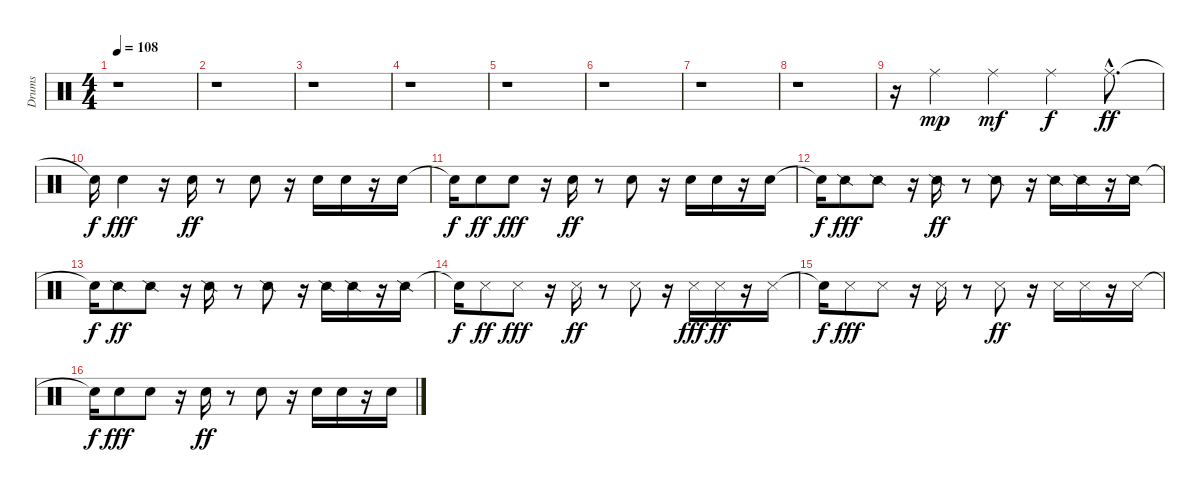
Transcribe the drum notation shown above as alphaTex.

\track ("Drums" "Drums") {instrument percussion}
\staff {score}
\articulation defaults
\ts (4 4)
\tempo 108
\clef neutral
\ks c
r.1{dy ff} |
r.1 |
r.1 |
r.1 |
r.1 |
r.1 |
r.1 |
r.1 |
r.16 "Ride (middle)".4{dy mp} "Ride (middle)".4{dy mf} "Ride (middle)".4{dy f} "Ride (middle)"{hac}.8{d dy ff} |
"Snare (hit)"{t}.16{dy f} "Metronome (bell)".4{dy fff} r.16 "Metronome (bell)".16{dy ff} r.8 "Metronome (bell)".8 r.16 "Metronome (bell)".16 "Metronome (bell)".16 r.16 "Metronome (bell)".16 |
"Snare (hit)"{t}.16{dy f} "Metronome (bell)".8{dy ff} "Metronome (bell)".8{dy fff} r.16 "Metronome (bell)".16{dy ff} r.8 "Metronome (bell)".8 r.16 "Metronome (bell)".16 "Metronome (bell)".16 r.16 "Metronome (bell)".16 |
"Snare (hit)"{t}.16{dy f} "Snare (side stick) 2".8{dy fff} "Snare (side stick) 2".8 r.16 "Snare (side stick) 2".16{dy ff} r.8 "Snare (side stick) 2".8 r.16 "Snare (side stick) 2".16 "Snare (side stick) 2".16 r.16 "Snare (side stick) 2".16 |
"Snare (hit)"{t}.16{dy f} "Snare (side stick) 2".8{dy ff} "Snare (side stick) 2".8 r.16 "Snare (side stick) 2".16 r.8 "Snare (side stick) 2".8 r.16 "Snare (side stick) 2".16 "Snare (side stick) 2".16 r.16 "Snare (side stick) 2".16 |
"Snare (hit)"{t}.16{dy f} "Snare (side stick) 3".8{dy ff} "Snare (side stick) 3".8{dy fff} r.16 "Snare (side stick) 3".16{dy ff} r.8 "Snare (side stick) 3".8 r.16 "Snare (side stick) 3".16{dy fff} "Snare (side stick) 3".16{dy ff} r.16 "Snare (side stick) 3".16 |
"Snare (hit)"{t}.16{dy f} "Snare (side stick) 3".8{dy fff} "Snare (side stick) 3".8 r.16 "Snare (side stick) 3".16 r.8 "Snare (side stick) 3".8{dy ff} r.16 "Snare (side stick) 3".16 "Snare (side stick) 3".16 r.16 "Snare (side stick) 3".16 |
"Snare (hit)"{t}.16{dy f} "Hand Clap (hit)".8{dy fff} "Hand Clap (hit)".8 r.16 "Hand Clap (hit)".16{dy ff} r.8 "Hand Clap (hit)".8 r.16 "Hand Clap (hit)".16 "Hand Clap (hit)".16 r.16 "Hand Clap (hit)".16
